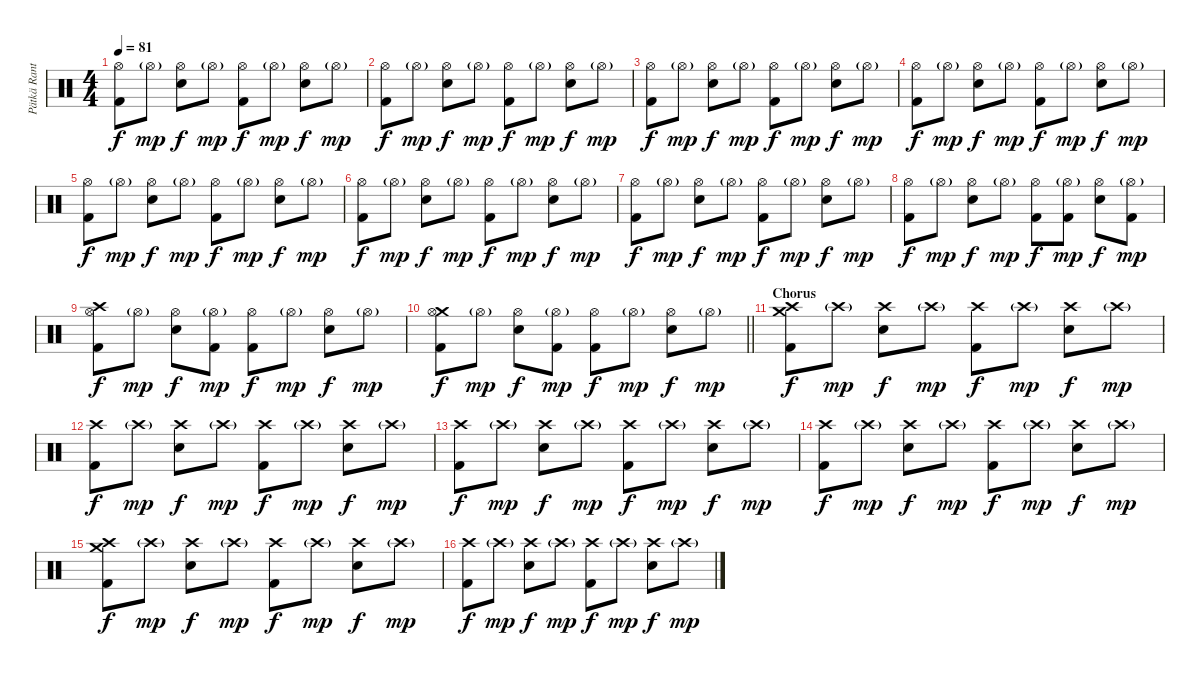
\track ("Pätkä Rantala (Drums)" "Pätkä Rant") {instrument percussion}
\staff {score}
\articulation defaults
\ts (4 4)
\tempo 81
\clef neutral
\ks c
("Hi-Hat (open)" "Kick (hit) 2").8{dy f} "Hi-Hat (open)"{g}.8{dy mp} ("Hi-Hat (open)" "Snare (hit) 2").8{dy f} "Hi-Hat (open)"{g}.8{dy mp} ("Hi-Hat (open)" "Kick (hit) 2").8{dy f} "Hi-Hat (open)"{g}.8{dy mp} ("Hi-Hat (open)" "Snare (hit) 2").8{dy f} "Hi-Hat (open)"{g}.8{dy mp} |
("Hi-Hat (open)" "Kick (hit) 2").8{dy f} "Hi-Hat (open)"{g}.8{dy mp} ("Hi-Hat (open)" "Snare (hit) 2").8{dy f} "Hi-Hat (open)"{g}.8{dy mp} ("Hi-Hat (open)" "Kick (hit) 2").8{dy f} "Hi-Hat (open)"{g}.8{dy mp} ("Hi-Hat (open)" "Snare (hit) 2").8{dy f} "Hi-Hat (open)"{g}.8{dy mp} |
("Hi-Hat (open)" "Kick (hit) 2").8{dy f} "Hi-Hat (open)"{g}.8{dy mp} ("Hi-Hat (open)" "Snare (hit) 2").8{dy f} "Hi-Hat (open)"{g}.8{dy mp} ("Hi-Hat (open)" "Kick (hit) 2").8{dy f} "Hi-Hat (open)"{g}.8{dy mp} ("Hi-Hat (open)" "Snare (hit) 2").8{dy f} "Hi-Hat (open)"{g}.8{dy mp} |
("Hi-Hat (open)" "Kick (hit) 2").8{dy f} "Hi-Hat (open)"{g}.8{dy mp} ("Hi-Hat (open)" "Snare (hit) 2").8{dy f} "Hi-Hat (open)"{g}.8{dy mp} ("Hi-Hat (open)" "Kick (hit) 2").8{dy f} "Hi-Hat (open)"{g}.8{dy mp} ("Hi-Hat (open)" "Snare (hit) 2").8{dy f} "Hi-Hat (open)"{g}.8{dy mp} |
("Hi-Hat (open)" "Kick (hit) 2").8{dy f} "Hi-Hat (open)"{g}.8{dy mp} ("Hi-Hat (open)" "Snare (hit) 2").8{dy f} "Hi-Hat (open)"{g}.8{dy mp} ("Hi-Hat (open)" "Kick (hit) 2").8{dy f} "Hi-Hat (open)"{g}.8{dy mp} ("Hi-Hat (open)" "Snare (hit) 2").8{dy f} "Hi-Hat (open)"{g}.8{dy mp} |
("Hi-Hat (open)" "Kick (hit) 2").8{dy f} "Hi-Hat (open)"{g}.8{dy mp} ("Hi-Hat (open)" "Snare (hit) 2").8{dy f} "Hi-Hat (open)"{g}.8{dy mp} ("Hi-Hat (open)" "Kick (hit) 2").8{dy f} "Hi-Hat (open)"{g}.8{dy mp} ("Hi-Hat (open)" "Snare (hit) 2").8{dy f} "Hi-Hat (open)"{g}.8{dy mp} |
("Hi-Hat (open)" "Kick (hit) 2").8{dy f} "Hi-Hat (open)"{g}.8{dy mp} ("Hi-Hat (open)" "Snare (hit) 2").8{dy f} "Hi-Hat (open)"{g}.8{dy mp} ("Hi-Hat (open)" "Kick (hit) 2").8{dy f} "Hi-Hat (open)"{g}.8{dy mp} ("Hi-Hat (open)" "Snare (hit) 2").8{dy f} "Hi-Hat (open)"{g}.8{dy mp} |
("Hi-Hat (open)" "Kick (hit) 2").8{dy f} "Hi-Hat (open)"{g}.8{dy mp} ("Hi-Hat (open)" "Snare (hit) 2").8{dy f} "Hi-Hat (open)"{g}.8{dy mp} ("Hi-Hat (open)" "Kick (hit) 2").8{dy f} ("Hi-Hat (open)"{g} "Kick (hit) 2").8{dy mp} ("Hi-Hat (open)" "Snare (hit) 2").8{dy f} ("Hi-Hat (open)"{g} "Kick (hit) 2").8{dy mp} |
("Crash high (hit)" "Hi-Hat (open)" "Kick (hit) 2").8{dy f} "Hi-Hat (open)"{g}.8{dy mp} ("Hi-Hat (open)" "Snare (hit) 2").8{dy f} ("Hi-Hat (open)"{g} "Kick (hit) 2").8{dy mp} ("Hi-Hat (open)" "Kick (hit) 2").8{dy f} "Hi-Hat (open)"{g}.8{dy mp} ("Hi-Hat (open)" "Snare (hit) 2").8{dy f} "Hi-Hat (open)"{g}.8{dy mp} |
\barLineRight lightlight
("Crash medium (hit)" "Hi-Hat (open)" "Kick (hit) 2").8{dy f} "Hi-Hat (open)"{g}.8{dy mp} ("Hi-Hat (open)" "Snare (hit) 2").8{dy f} ("Hi-Hat (open)"{g} "Kick (hit) 2").8{dy mp} ("Hi-Hat (open)" "Kick (hit) 2").8{dy f} "Hi-Hat (open)"{g}.8{dy mp} ("Hi-Hat (open)" "Snare (hit) 2").8{dy f} "Hi-Hat (open)"{g}.8{dy mp} |
\section ("" "Chorus")
("Crash medium (hit)" "Crash high (hit)" "Kick (hit) 2").8{dy f} "Crash high (hit)"{g}.8{dy mp} ("Crash high (hit)" "Snare (hit) 2").8{dy f} "Crash high (hit)"{g}.8{dy mp} ("Crash high (hit)" "Kick (hit) 2").8{dy f} "Crash high (hit)"{g}.8{dy mp} ("Crash high (hit)" "Snare (hit) 2").8{dy f} "Crash high (hit)"{g}.8{dy mp} |
("Crash high (hit)" "Kick (hit) 2").8{dy f} "Crash high (hit)"{g}.8{dy mp} ("Crash high (hit)" "Snare (hit) 2").8{dy f} "Crash high (hit)"{g}.8{dy mp} ("Crash high (hit)" "Kick (hit) 2").8{dy f} "Crash high (hit)"{g}.8{dy mp} ("Crash high (hit)" "Snare (hit) 2").8{dy f} "Crash high (hit)"{g}.8{dy mp} |
("Crash high (hit)" "Kick (hit) 2").8{dy f} "Crash high (hit)"{g}.8{dy mp} ("Crash high (hit)" "Snare (hit) 2").8{dy f} "Crash high (hit)"{g}.8{dy mp} ("Crash high (hit)" "Kick (hit) 2").8{dy f} "Crash high (hit)"{g}.8{dy mp} ("Crash high (hit)" "Snare (hit) 2").8{dy f} "Crash high (hit)"{g}.8{dy mp} |
("Crash high (hit)" "Kick (hit) 2").8{dy f} "Crash high (hit)"{g}.8{dy mp} ("Crash high (hit)" "Snare (hit) 2").8{dy f} "Crash high (hit)"{g}.8{dy mp} ("Crash high (hit)" "Kick (hit) 2").8{dy f} "Crash high (hit)"{g}.8{dy mp} ("Crash high (hit)" "Snare (hit) 2").8{dy f} "Crash high (hit)"{g}.8{dy mp} |
("Crash medium (hit)" "Crash high (hit)" "Kick (hit) 2").8{dy f} "Crash high (hit)"{g}.8{dy mp} ("Crash high (hit)" "Snare (hit) 2").8{dy f} "Crash high (hit)"{g}.8{dy mp} ("Crash high (hit)" "Kick (hit) 2").8{dy f} "Crash high (hit)"{g}.8{dy mp} ("Crash high (hit)" "Snare (hit) 2").8{dy f} "Crash high (hit)"{g}.8{dy mp} |
("Crash high (hit)" "Kick (hit) 2").8{dy f} "Crash high (hit)"{g}.8{dy mp} ("Crash high (hit)" "Snare (hit) 2").8{dy f} "Crash high (hit)"{g}.8{dy mp} ("Crash high (hit)" "Kick (hit) 2").8{dy f} "Crash high (hit)"{g}.8{dy mp} ("Crash high (hit)" "Snare (hit) 2").8{dy f} "Crash high (hit)"{g}.8{dy mp}
